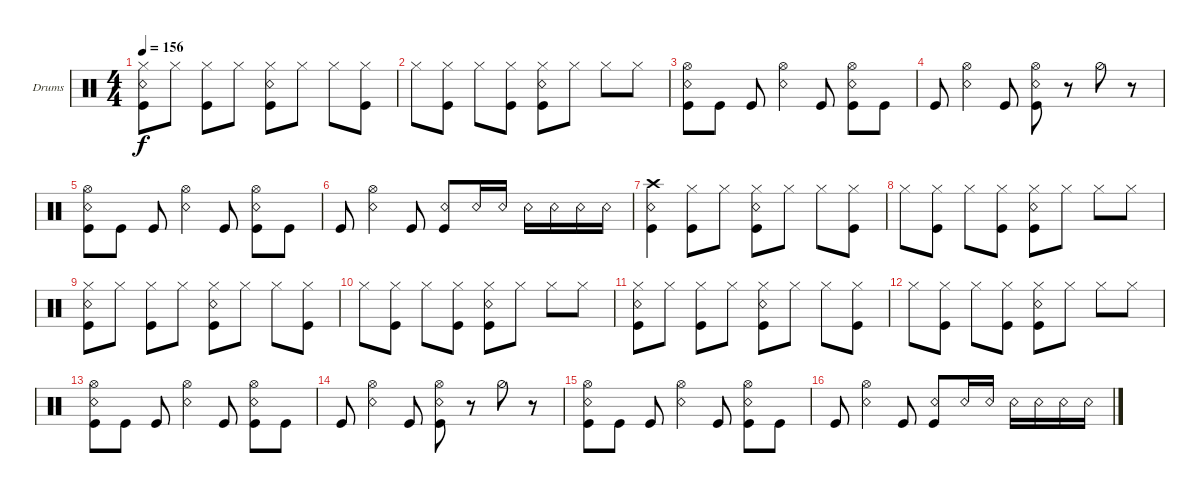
\bracketExtendMode groupsimilarinstruments
\firstSystemTrackNameOrientation horizontal
\otherSystemsTrackNameOrientation horizontal
\track ("Drums" "Drums") {instrument percussion}
\staff {score}
\articulation defaults
\ts (4 4)
\tempo 156
\clef neutral
\ks c
("Kick (hit)" "Snare (rim shot)" "Hi-Hat (closed)").8{dy f} "Hi-Hat (closed)".8 ("Kick (hit)" "Hi-Hat (closed)").8 "Hi-Hat (closed)".8 ("Kick (hit)" "Snare (rim shot)" "Hi-Hat (closed)").8 "Hi-Hat (closed)".8 "Hi-Hat (closed)".8 ("Kick (hit)" "Hi-Hat (closed)").8 |
"Hi-Hat (closed)".8 ("Kick (hit)" "Hi-Hat (closed)").8 "Hi-Hat (closed)".8 ("Kick (hit)" "Hi-Hat (closed)").8 ("Kick (hit)" "Snare (rim shot)" "Hi-Hat (closed)").8 "Hi-Hat (closed)".8 "Hi-Hat (closed)".8 "Hi-Hat (closed)".8 |
("Kick (hit)" "Snare (rim shot)" "Hi-Hat (open)").8 "Kick (hit)".8 "Kick (hit)".8 ("Snare (rim shot)" "Hi-Hat (open)").4 "Kick (hit)".8 ("Kick (hit)" "Snare (rim shot)" "Hi-Hat (open)").8 "Kick (hit)".8 |
"Kick (hit)".8 ("Snare (rim shot)" "Hi-Hat (open)").4 "Kick (hit)".8 ("Kick (hit)" "Snare (rim shot)" "Hi-Hat (open)").8 r.8 "Hi-Hat (half)".8 r.8 |
("Kick (hit)" "Snare (rim shot)" "Hi-Hat (open)").8 "Kick (hit)".8 "Kick (hit)".8 ("Snare (rim shot)" "Hi-Hat (open)").4 "Kick (hit)".8 ("Kick (hit)" "Snare (rim shot)" "Hi-Hat (open)").8 "Kick (hit)".8 |
"Kick (hit)".8 ("Snare (rim shot)" "Hi-Hat (open)").4 "Kick (hit)".8 ("Kick (hit)" "Snare (rim shot)").8 "Snare (rim shot)".16 "Snare (rim shot)".16 "Snare (rim shot)".16 "Snare (rim shot)".16 "Snare (rim shot)".16 "Snare (rim shot)".16 |
("Kick (hit)" "Snare (rim shot)" "Crash high (hit)").4 ("Kick (hit)" "Hi-Hat (closed)").8 "Hi-Hat (closed)".8 ("Kick (hit)" "Snare (rim shot)" "Hi-Hat (closed)").8 "Hi-Hat (closed)".8 "Hi-Hat (closed)".8 ("Kick (hit)" "Hi-Hat (closed)").8 |
"Hi-Hat (closed)".8 ("Kick (hit)" "Hi-Hat (closed)").8 "Hi-Hat (closed)".8 ("Kick (hit)" "Hi-Hat (closed)").8 ("Kick (hit)" "Snare (rim shot)" "Hi-Hat (closed)").8 "Hi-Hat (closed)".8 "Hi-Hat (closed)".8 "Hi-Hat (closed)".8 |
("Kick (hit)" "Snare (rim shot)" "Hi-Hat (closed)").8 "Hi-Hat (closed)".8 ("Kick (hit)" "Hi-Hat (closed)").8 "Hi-Hat (closed)".8 ("Kick (hit)" "Snare (rim shot)" "Hi-Hat (closed)").8 "Hi-Hat (closed)".8 "Hi-Hat (closed)".8 ("Kick (hit)" "Hi-Hat (closed)").8 |
"Hi-Hat (closed)".8 ("Kick (hit)" "Hi-Hat (closed)").8 "Hi-Hat (closed)".8 ("Kick (hit)" "Hi-Hat (closed)").8 ("Kick (hit)" "Snare (rim shot)" "Hi-Hat (closed)").8 "Hi-Hat (closed)".8 "Hi-Hat (closed)".8 "Hi-Hat (closed)".8 |
("Kick (hit)" "Snare (rim shot)" "Hi-Hat (closed)").8 "Hi-Hat (closed)".8 ("Kick (hit)" "Hi-Hat (closed)").8 "Hi-Hat (closed)".8 ("Kick (hit)" "Snare (rim shot)" "Hi-Hat (closed)").8 "Hi-Hat (closed)".8 "Hi-Hat (closed)".8 ("Kick (hit)" "Hi-Hat (closed)").8 |
"Hi-Hat (closed)".8 ("Kick (hit)" "Hi-Hat (closed)").8 "Hi-Hat (closed)".8 ("Kick (hit)" "Hi-Hat (closed)").8 ("Kick (hit)" "Snare (rim shot)" "Hi-Hat (closed)").8 "Hi-Hat (closed)".8 "Hi-Hat (closed)".8 "Hi-Hat (closed)".8 |
("Kick (hit)" "Snare (rim shot)" "Hi-Hat (open)").8 "Kick (hit)".8 "Kick (hit)".8 ("Snare (rim shot)" "Hi-Hat (open)").4 "Kick (hit)".8 ("Kick (hit)" "Snare (rim shot)" "Hi-Hat (open)").8 "Kick (hit)".8 |
"Kick (hit)".8 ("Snare (rim shot)" "Hi-Hat (open)").4 "Kick (hit)".8 ("Kick (hit)" "Snare (rim shot)" "Hi-Hat (open)").8 r.8 "Hi-Hat (half)".8 r.8 |
("Kick (hit)" "Snare (rim shot)" "Hi-Hat (open)").8 "Kick (hit)".8 "Kick (hit)".8 ("Snare (rim shot)" "Hi-Hat (open)").4 "Kick (hit)".8 ("Kick (hit)" "Snare (rim shot)" "Hi-Hat (open)").8 "Kick (hit)".8 |
"Kick (hit)".8 ("Snare (rim shot)" "Hi-Hat (open)").4 "Kick (hit)".8 ("Kick (hit)" "Snare (rim shot)").8 "Snare (rim shot)".16 "Snare (rim shot)".16 "Snare (rim shot)".16 "Snare (rim shot)".16 "Snare (rim shot)".16 "Snare (rim shot)".16
